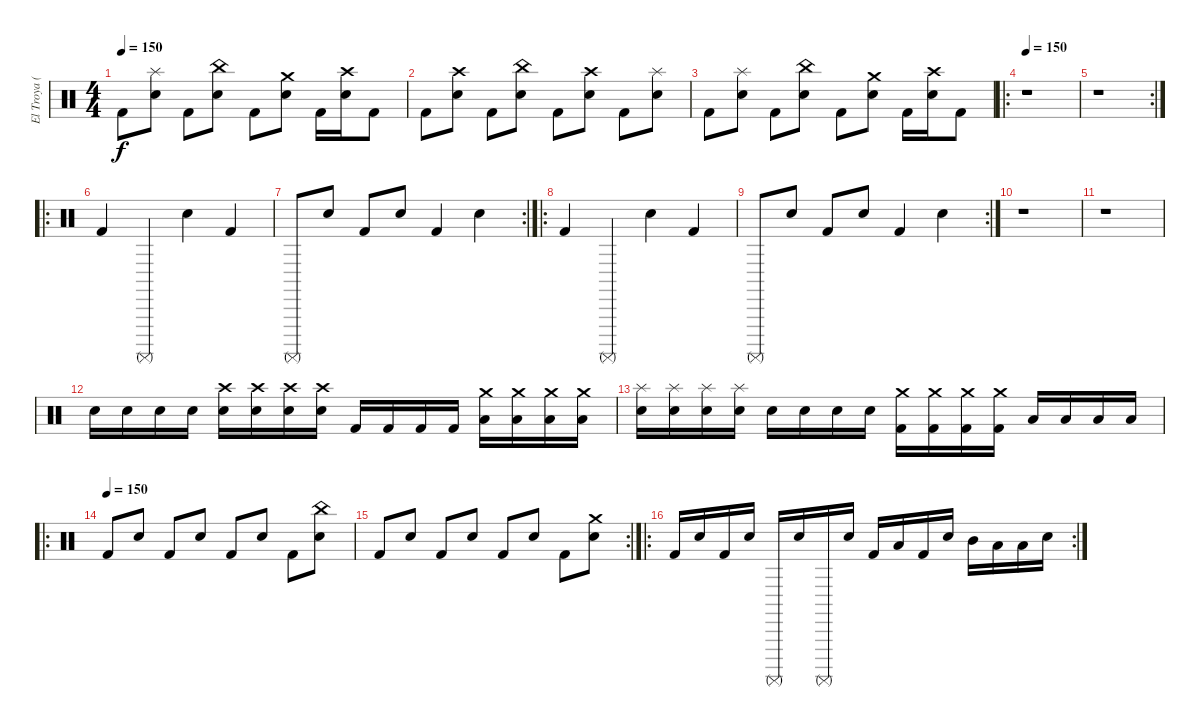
\track ("El Troya (premio)" "El Troya (") {instrument percussion}
\staff {score}
\articulation defaults
\ts (4 4)
\tempo 150
\clef neutral
\ks c "Kick (hit) 2".8{dy f}
("Splash (hit)" "Snare (hit) 2").8 "Kick (hit) 2".8 ("China (hit)" "Snare (hit) 2").8 "Kick (hit) 2".8 ("Crash medium (hit)" "Snare (hit) 2").8 "Kick (hit) 2".16 ("Crash high (hit)" "Snare (hit) 2").16 "Kick (hit) 2".8 |
"Kick (hit) 2".8 ("Crash high (hit)" "Snare (hit) 2").8 "Kick (hit) 2".8 ("China (hit)" "Snare (hit) 2").8 "Kick (hit) 2".8 ("Snare (hit) 2" "Crash high (hit)").8 "Kick (hit) 2".8 ("Splash (hit)" "Snare (hit) 2").8 |
"Kick (hit) 2".8 ("Splash (hit)" "Snare (hit) 2").8 "Kick (hit) 2".8 ("China (hit)" "Snare (hit) 2").8 "Kick (hit) 2".8 ("Crash medium (hit)" "Snare (hit) 2").8 "Kick (hit) 2".16 ("Crash high (hit)" "Snare (hit) 2").16 "Kick (hit) 2".8 |
\ro
\tempo 150
r.1 |
\rc 2
r.1 |
\ro "Kick (hit) 2".4 "Surdo (mute)".4 "Snare (hit) 2".4 "Kick (hit) 2".4
|
\rc 2 "Surdo (mute)".8 "Electric Snare (hit)".8 "Kick (hit) 2".8 "Snare (hit) 2".8 "Kick (hit) 2".4 "Electric Snare (hit)".4
|
\ro "Kick (hit) 2".4 "Surdo (mute)".4 "Snare (hit) 2".4 "Kick (hit) 2".4
|
\rc 2 "Surdo (mute)".8 "Electric Snare (hit)".8 "Kick (hit) 2".8 "Snare (hit) 2".8 "Kick (hit) 2".4 "Electric Snare (hit)".4
|
r.1 |
r.1 |
"Electric Snare (hit)".16 "Electric Snare (hit)".16 "Electric Snare (hit)".16 "Electric Snare (hit)".16 ("Crash high (hit)" "Snare (hit) 2").16 ("Crash high (hit)" "Snare (hit) 2").16 ("Crash high (hit)" "Snare (hit) 2").16 ("Crash high (hit)" "Snare (hit) 2").16 "Kick (hit) 2".16 "Kick (hit) 2".16 "Kick (hit) 2".16 "Kick (hit) 2".16 ("Crash medium (hit)" "Low Tom (hit)").16 ("Crash medium (hit)" "Low Tom (hit)").16 ("Crash medium (hit)" "Low Tom (hit)").16 ("Crash medium (hit)" "Low Tom (hit)").16 |
("Splash (hit)" "Electric Snare (hit)").16 ("Splash (hit)" "Electric Snare (hit)").16 ("Splash (hit)" "Electric Snare (hit)").16 ("Splash (hit)" "Electric Snare (hit)").16 "Snare (hit) 2".16 "Snare (hit) 2".16 "Snare (hit) 2".16 "Snare (hit) 2".16 ("Crash medium (hit)" "Kick (hit) 2").16 ("Crash medium (hit)" "Kick (hit) 2").16 ("Crash medium (hit)" "Kick (hit) 2").16 ("Crash medium (hit)" "Kick (hit) 2").16 "Low Tom (hit)".16 "Low Tom (hit)".16 "Low Tom (hit)".16 "Low Tom (hit)".16 |
\ro
\tempo (150)
"Kick (hit) 2".8 "Snare (hit) 2".8 "Kick (hit) 2".8 "Snare (hit) 2".8 "Kick (hit) 2".8 "Snare (hit) 2".8 "Kick (hit) 2".8 ("China (hit)" "Snare (hit) 2").8 |
\rc 2 "Kick (hit) 2".8 "Snare (hit) 2".8 "Kick (hit) 2".8 "Snare (hit) 2".8 "Kick (hit) 2".8 "Snare (hit) 2".8 "Kick (hit) 2".8
("Crash medium (hit)" "Snare (hit) 2").8 |
\ro
\rc 2 "Kick (hit) 2".16 "Snare (hit) 2".16 "Kick (hit) 2".16 "Snare (hit) 2".16 "Surdo (mute)".16 "Electric Snare (hit)".16 "Surdo (mute)".16 "Electric Snare (hit)".16 "Kick (hit) 2".16 "Low Tom (hit)".16 "Kick (hit) 2".16 "Snare (hit) 2".16 "Mid Tom (hit)".16 "Low Tom (hit)".16 "Low Floor Tom (hit)".16 "Electric Snare (hit)".16
